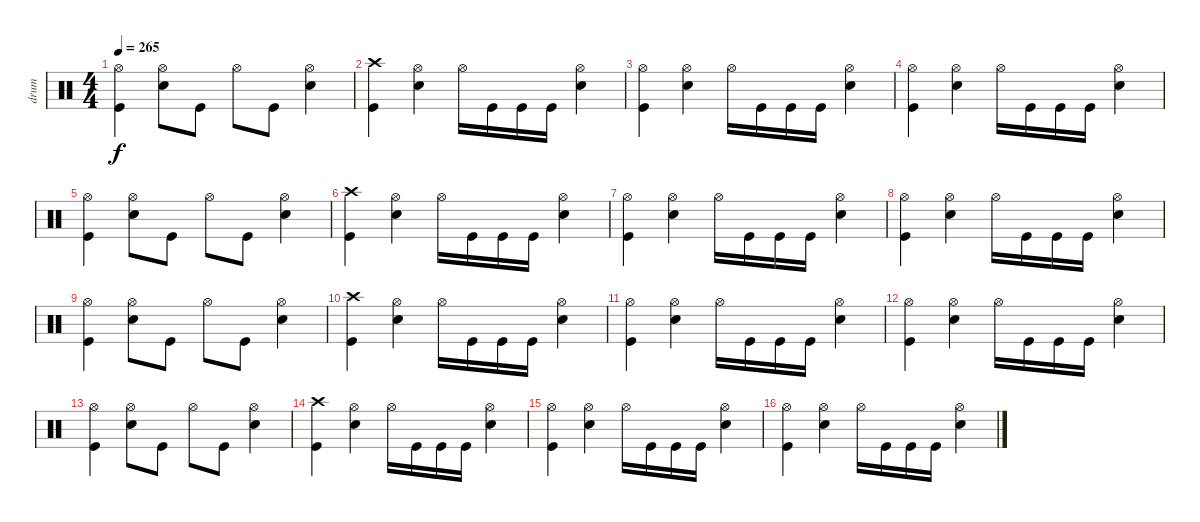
\track ("drum" "drum") {instrument percussion}
\staff {score}
\articulation defaults
\ts (4 4)
\tempo 265
\clef neutral
\ks c
("Kick (hit)" "Hi-Hat (open)").4{dy f} ("Electric Snare (hit)" "Hi-Hat (open)").8 "Kick (hit)".8 "Hi-Hat (open)".8 "Kick (hit)".8 ("Electric Snare (hit)" "Hi-Hat (open)").4 |
("Kick (hit)" "Crash high (hit)").4 ("Electric Snare (hit)" "Hi-Hat (open)").4 "Hi-Hat (open)".16 "Kick (hit)".16 "Kick (hit)".16 "Kick (hit)".16 ("Electric Snare (hit)" "Hi-Hat (open)").4 |
("Kick (hit)" "Hi-Hat (open)").4 ("Electric Snare (hit)" "Hi-Hat (open)").4 "Hi-Hat (open)".16 "Kick (hit)".16 "Kick (hit)".16 "Kick (hit)".16 ("Electric Snare (hit)" "Hi-Hat (open)").4 |
("Kick (hit)" "Hi-Hat (open)").4 ("Electric Snare (hit)" "Hi-Hat (open)").4 "Hi-Hat (open)".16 "Kick (hit)".16 "Kick (hit)".16 "Kick (hit)".16 ("Electric Snare (hit)" "Hi-Hat (open)").4 |
("Kick (hit)" "Hi-Hat (open)").4 ("Electric Snare (hit)" "Hi-Hat (open)").8 "Kick (hit)".8 "Hi-Hat (open)".8 "Kick (hit)".8 ("Electric Snare (hit)" "Hi-Hat (open)").4 |
("Kick (hit)" "Crash high (hit)").4 ("Electric Snare (hit)" "Hi-Hat (open)").4 "Hi-Hat (open)".16 "Kick (hit)".16 "Kick (hit)".16 "Kick (hit)".16 ("Electric Snare (hit)" "Hi-Hat (open)").4 |
("Kick (hit)" "Hi-Hat (open)").4 ("Electric Snare (hit)" "Hi-Hat (open)").4 "Hi-Hat (open)".16 "Kick (hit)".16 "Kick (hit)".16 "Kick (hit)".16 ("Electric Snare (hit)" "Hi-Hat (open)").4 |
("Kick (hit)" "Hi-Hat (open)").4 ("Electric Snare (hit)" "Hi-Hat (open)").4 "Hi-Hat (open)".16 "Kick (hit)".16 "Kick (hit)".16 "Kick (hit)".16 ("Electric Snare (hit)" "Hi-Hat (open)").4 |
("Kick (hit)" "Hi-Hat (open)").4 ("Electric Snare (hit)" "Hi-Hat (open)").8 "Kick (hit)".8 "Hi-Hat (open)".8 "Kick (hit)".8 ("Electric Snare (hit)" "Hi-Hat (open)").4 |
("Kick (hit)" "Crash high (hit)").4 ("Electric Snare (hit)" "Hi-Hat (open)").4 "Hi-Hat (open)".16 "Kick (hit)".16 "Kick (hit)".16 "Kick (hit)".16 ("Electric Snare (hit)" "Hi-Hat (open)").4 |
("Kick (hit)" "Hi-Hat (open)").4 ("Electric Snare (hit)" "Hi-Hat (open)").4 "Hi-Hat (open)".16 "Kick (hit)".16 "Kick (hit)".16 "Kick (hit)".16 ("Electric Snare (hit)" "Hi-Hat (open)").4 |
("Kick (hit)" "Hi-Hat (open)").4 ("Electric Snare (hit)" "Hi-Hat (open)").4 "Hi-Hat (open)".16 "Kick (hit)".16 "Kick (hit)".16 "Kick (hit)".16 ("Electric Snare (hit)" "Hi-Hat (open)").4 |
("Kick (hit)" "Hi-Hat (open)").4 ("Electric Snare (hit)" "Hi-Hat (open)").8 "Kick (hit)".8 "Hi-Hat (open)".8 "Kick (hit)".8 ("Electric Snare (hit)" "Hi-Hat (open)").4 |
("Kick (hit)" "Crash high (hit)").4 ("Electric Snare (hit)" "Hi-Hat (open)").4 "Hi-Hat (open)".16 "Kick (hit)".16 "Kick (hit)".16 "Kick (hit)".16 ("Electric Snare (hit)" "Hi-Hat (open)").4 |
("Kick (hit)" "Hi-Hat (open)").4 ("Electric Snare (hit)" "Hi-Hat (open)").4 "Hi-Hat (open)".16 "Kick (hit)".16 "Kick (hit)".16 "Kick (hit)".16 ("Electric Snare (hit)" "Hi-Hat (open)").4 |
("Kick (hit)" "Hi-Hat (open)").4 ("Electric Snare (hit)" "Hi-Hat (open)").4 "Hi-Hat (open)".16 "Kick (hit)".16 "Kick (hit)".16 "Kick (hit)".16 ("Electric Snare (hit)" "Hi-Hat (open)").4
